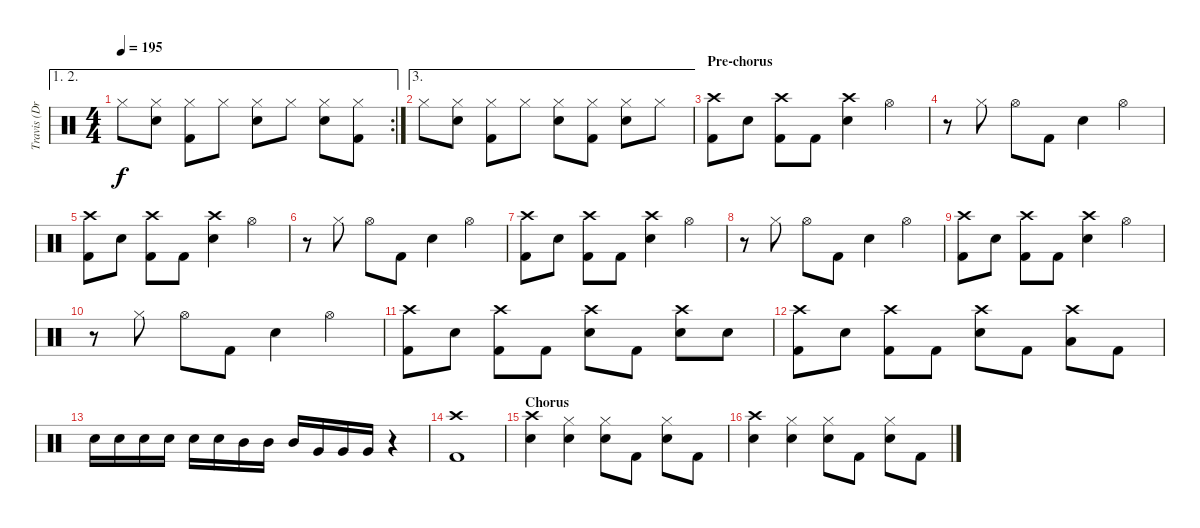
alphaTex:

\track ("Travis (Drums)" "Travis (Dr") {instrument percussion}
\staff {score}
\articulation defaults
\ae (1 2)
\rc 2
\ts (4 4)
\tempo 195
\clef neutral
\ks c "Hi-Hat (closed)".8{dy f}
("Hi-Hat (closed)" "Electric Snare (hit)").8 ("Hi-Hat (closed)" "Kick (hit) 2").8 "Hi-Hat (closed)".8 ("Hi-Hat (closed)" "Electric Snare (hit)").8 "Hi-Hat (closed)".8 ("Hi-Hat (closed)" "Electric Snare (hit)").8 ("Hi-Hat (closed)" "Kick (hit) 2").8 |
\ae 3 "Hi-Hat (closed)".8
("Hi-Hat (closed)" "Electric Snare (hit)").8 ("Hi-Hat (closed)" "Kick (hit) 2").8 "Hi-Hat (closed)".8 ("Hi-Hat (closed)" "Electric Snare (hit)").8 ("Hi-Hat (closed)" "Kick (hit) 2").8 ("Hi-Hat (closed)" "Electric Snare (hit)").8 "Hi-Hat (closed)".8 |
\section ("" "Pre-chorus")
("Crash high (hit)" "Kick (hit) 2").8 "Electric Snare (hit)".8 ("Crash high (hit)" "Kick (hit) 2").8 "Kick (hit) 2".8 ("Crash high (hit)" "Electric Snare (hit)").4 "Hi-Hat (open)".4 |
r.8 "Hi-Hat (closed)".8 "Hi-Hat (open)".8 "Kick (hit) 2".8 "Electric Snare (hit)".4 "Hi-Hat (open)".4 |
("Crash high (hit)" "Kick (hit) 2").8 "Electric Snare (hit)".8 ("Crash high (hit)" "Kick (hit) 2").8 "Kick (hit) 2".8 ("Crash high (hit)" "Electric Snare (hit)").4 "Hi-Hat (open)".4 |
r.8 "Hi-Hat (closed)".8 "Hi-Hat (open)".8 "Kick (hit) 2".8 "Electric Snare (hit)".4 "Hi-Hat (open)".4 |
("Crash high (hit)" "Kick (hit) 2").8 "Electric Snare (hit)".8 ("Crash high (hit)" "Kick (hit) 2").8 "Kick (hit) 2".8 ("Crash high (hit)" "Electric Snare (hit)").4 "Hi-Hat (open)".4 |
r.8 "Hi-Hat (closed)".8 "Hi-Hat (open)".8 "Kick (hit) 2".8 "Electric Snare (hit)".4 "Hi-Hat (open)".4 |
("Crash high (hit)" "Kick (hit) 2").8 "Electric Snare (hit)".8 ("Crash high (hit)" "Kick (hit) 2").8 "Kick (hit) 2".8 ("Crash high (hit)" "Electric Snare (hit)").4 "Hi-Hat (open)".4 |
r.8 "Hi-Hat (closed)".8 "Hi-Hat (open)".8 "Kick (hit) 2".8 "Electric Snare (hit)".4 "Hi-Hat (open)".4 |
("Crash high (hit)" "Kick (hit) 2").8 "Electric Snare (hit)".8 ("Crash high (hit)" "Kick (hit) 2").8 "Kick (hit) 2".8 ("Crash high (hit)" "Electric Snare (hit)").8 "Kick (hit) 2".8 ("Crash high (hit)" "Electric Snare (hit)").8 "Electric Snare (hit)".8 |
("Crash high (hit)" "Kick (hit) 2").8 "Electric Snare (hit)".8 ("Crash high (hit)" "Kick (hit) 2").8 "Kick (hit) 2".8 ("Crash high (hit)" "Electric Snare (hit)").8 "Kick (hit) 2".8 ("Low Tom (hit)" "Crash high (hit)").8 "Kick (hit) 2".8 |
"Electric Snare (hit)".16 "Electric Snare (hit)".16 "Electric Snare (hit)".16 "Electric Snare (hit)".16 "Electric Snare (hit)".16 "Electric Snare (hit)".16 "Mid Tom (hit)".16 "Mid Tom (hit)".16 "Mid Tom (hit)".16 "Very Low Tom (hit)".16 "Very Low Tom (hit)".16 "Very Low Tom (hit)".16 r.4 |
("Crash high (hit)" "Kick (hit) 2").1 |
\section ("" "Chorus")
("Crash high (hit)" "Electric Snare (hit)").4 ("Hi-Hat (closed)" "Electric Snare (hit)").4 ("Hi-Hat (closed)" "Electric Snare (hit)").8 "Kick (hit) 2".8 ("Hi-Hat (closed)" "Electric Snare (hit)").8 "Kick (hit) 2".8 |
("Crash high (hit)" "Electric Snare (hit)").4 ("Hi-Hat (closed)" "Electric Snare (hit)").4 ("Hi-Hat (closed)" "Electric Snare (hit)").8 "Kick (hit) 2".8 ("Hi-Hat (closed)" "Electric Snare (hit)").8 "Kick (hit) 2".8
